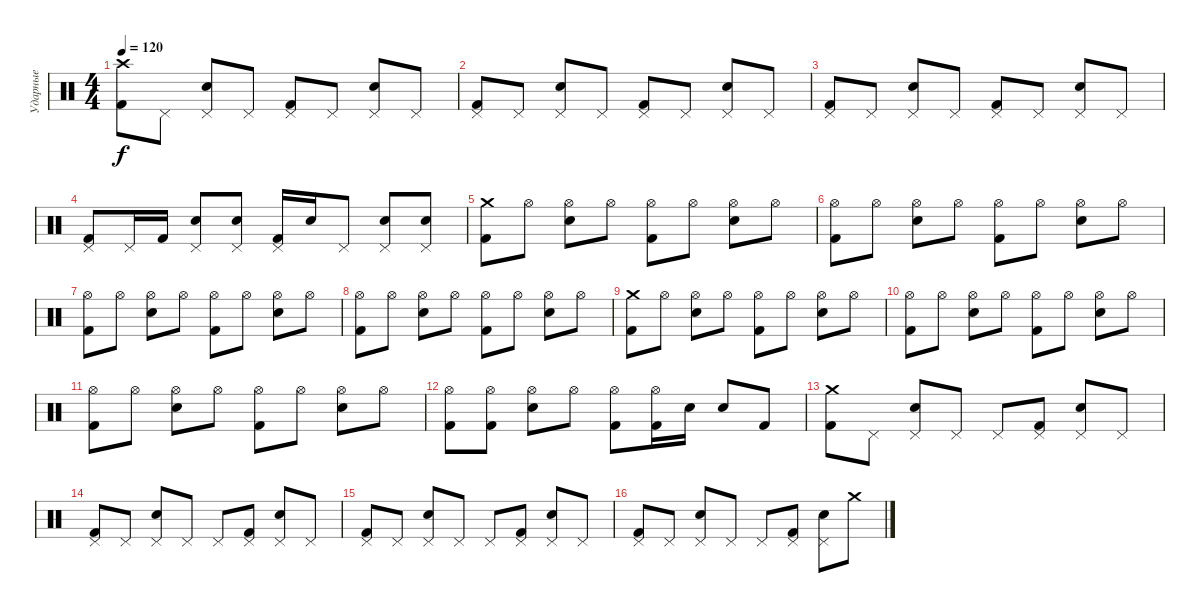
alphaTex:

\track ("Ударные" "Ударные") {instrument percussion}
\staff {score}
\articulation defaults
\ts (4 4)
\tempo 120
\clef neutral
\ks c
("Crash high (hit)" "Kick (hit) 2").8{dy f} "Pedal Hi-Hat (hit)".8 ("Pedal Hi-Hat (hit)" "Snare (hit) 2").8 "Pedal Hi-Hat (hit)".8 ("Pedal Hi-Hat (hit)" "Kick (hit) 2").8 "Pedal Hi-Hat (hit)".8 ("Pedal Hi-Hat (hit)" "Snare (hit) 2").8 "Pedal Hi-Hat (hit)".8 |
("Pedal Hi-Hat (hit)" "Kick (hit) 2").8 "Pedal Hi-Hat (hit)".8 ("Pedal Hi-Hat (hit)" "Snare (hit) 2").8 "Pedal Hi-Hat (hit)".8 ("Pedal Hi-Hat (hit)" "Kick (hit) 2").8 "Pedal Hi-Hat (hit)".8 ("Pedal Hi-Hat (hit)" "Snare (hit) 2").8 "Pedal Hi-Hat (hit)".8 |
("Pedal Hi-Hat (hit)" "Kick (hit) 2").8 "Pedal Hi-Hat (hit)".8 ("Pedal Hi-Hat (hit)" "Snare (hit) 2").8 "Pedal Hi-Hat (hit)".8 ("Pedal Hi-Hat (hit)" "Kick (hit) 2").8 "Pedal Hi-Hat (hit)".8 ("Pedal Hi-Hat (hit)" "Snare (hit) 2").8 "Pedal Hi-Hat (hit)".8 |
("Pedal Hi-Hat (hit)" "Kick (hit) 2").8 "Pedal Hi-Hat (hit)".16 "Kick (hit) 2".16 ("Pedal Hi-Hat (hit)" "Snare (hit) 2").8 ("Pedal Hi-Hat (hit)" "Snare (hit) 2").8 ("Pedal Hi-Hat (hit)" "Kick (hit) 2").16 "Snare (hit) 2".16 "Pedal Hi-Hat (hit)".8 ("Pedal Hi-Hat (hit)" "Snare (hit) 2").8 ("Pedal Hi-Hat (hit)" "Snare (hit) 2").8 |
("Crash medium (hit)" "Kick (hit) 2").8 "Hi-Hat (open)".8 ("Hi-Hat (open)" "Snare (hit) 2").8 "Hi-Hat (open)".8 ("Hi-Hat (open)" "Kick (hit) 2").8 "Hi-Hat (open)".8 ("Hi-Hat (open)" "Snare (hit) 2").8 "Hi-Hat (open)".8 |
("Hi-Hat (open)" "Kick (hit) 2").8 "Hi-Hat (open)".8 ("Hi-Hat (open)" "Snare (hit) 2").8 "Hi-Hat (open)".8 ("Hi-Hat (open)" "Kick (hit) 2").8 "Hi-Hat (open)".8 ("Hi-Hat (open)" "Snare (hit) 2").8 "Hi-Hat (open)".8 |
("Hi-Hat (open)" "Kick (hit) 2").8 "Hi-Hat (open)".8 ("Hi-Hat (open)" "Snare (hit) 2").8 "Hi-Hat (open)".8 ("Hi-Hat (open)" "Kick (hit) 2").8 "Hi-Hat (open)".8 ("Hi-Hat (open)" "Snare (hit) 2").8 "Hi-Hat (open)".8 |
("Hi-Hat (open)" "Kick (hit) 2").8 "Hi-Hat (open)".8 ("Hi-Hat (open)" "Snare (hit) 2").8 "Hi-Hat (open)".8 ("Hi-Hat (open)" "Kick (hit) 2").8 "Hi-Hat (open)".8 ("Hi-Hat (open)" "Snare (hit) 2").8 "Hi-Hat (open)".8 |
("Crash medium (hit)" "Kick (hit) 2").8 "Hi-Hat (open)".8 ("Hi-Hat (open)" "Snare (hit) 2").8 "Hi-Hat (open)".8 ("Hi-Hat (open)" "Kick (hit) 2").8 "Hi-Hat (open)".8 ("Hi-Hat (open)" "Snare (hit) 2").8 "Hi-Hat (open)".8 |
("Hi-Hat (open)" "Kick (hit) 2").8 "Hi-Hat (open)".8 ("Hi-Hat (open)" "Snare (hit) 2").8 "Hi-Hat (open)".8 ("Hi-Hat (open)" "Kick (hit) 2").8 "Hi-Hat (open)".8 ("Hi-Hat (open)" "Snare (hit) 2").8 "Hi-Hat (open)".8 |
("Hi-Hat (open)" "Kick (hit) 2").8 "Hi-Hat (open)".8 ("Hi-Hat (open)" "Snare (hit) 2").8 "Hi-Hat (open)".8 ("Hi-Hat (open)" "Kick (hit) 2").8 "Hi-Hat (open)".8 ("Hi-Hat (open)" "Snare (hit) 2").8 "Hi-Hat (open)".8 |
("Hi-Hat (open)" "Kick (hit) 2").8 ("Hi-Hat (open)" "Kick (hit) 2").8 ("Hi-Hat (open)" "Snare (hit) 2").8 "Hi-Hat (open)".8 ("Hi-Hat (open)" "Kick (hit) 2").8 ("Hi-Hat (open)" "Kick (hit) 2").16 "Snare (hit) 2".16 "Snare (hit) 2".8 "Kick (hit) 2".8 |
("Crash medium (hit)" "Kick (hit) 2").8 "Pedal Hi-Hat (hit)".8 ("Pedal Hi-Hat (hit)" "Snare (hit) 2").8 "Pedal Hi-Hat (hit)".8 "Pedal Hi-Hat (hit)".8 ("Pedal Hi-Hat (hit)" "Kick (hit) 2").8 ("Pedal Hi-Hat (hit)" "Snare (hit) 2").8 "Pedal Hi-Hat (hit)".8 |
("Pedal Hi-Hat (hit)" "Kick (hit) 2").8 "Pedal Hi-Hat (hit)".8 ("Pedal Hi-Hat (hit)" "Snare (hit) 2").8 "Pedal Hi-Hat (hit)".8 "Pedal Hi-Hat (hit)".8 ("Pedal Hi-Hat (hit)" "Kick (hit) 2").8 ("Pedal Hi-Hat (hit)" "Snare (hit) 2").8 "Pedal Hi-Hat (hit)".8 |
("Pedal Hi-Hat (hit)" "Kick (hit) 2").8 "Pedal Hi-Hat (hit)".8 ("Pedal Hi-Hat (hit)" "Snare (hit) 2").8 "Pedal Hi-Hat (hit)".8 "Pedal Hi-Hat (hit)".8 ("Pedal Hi-Hat (hit)" "Kick (hit) 2").8 ("Pedal Hi-Hat (hit)" "Snare (hit) 2").8 "Pedal Hi-Hat (hit)".8 |
("Pedal Hi-Hat (hit)" "Kick (hit) 2").8 "Pedal Hi-Hat (hit)".8 ("Pedal Hi-Hat (hit)" "Snare (hit) 2").8 "Pedal Hi-Hat (hit)".8 "Pedal Hi-Hat (hit)".8 ("Pedal Hi-Hat (hit)" "Kick (hit) 2").8 ("Pedal Hi-Hat (hit)" "Snare (hit) 2").8 "Crash medium (hit)".8
